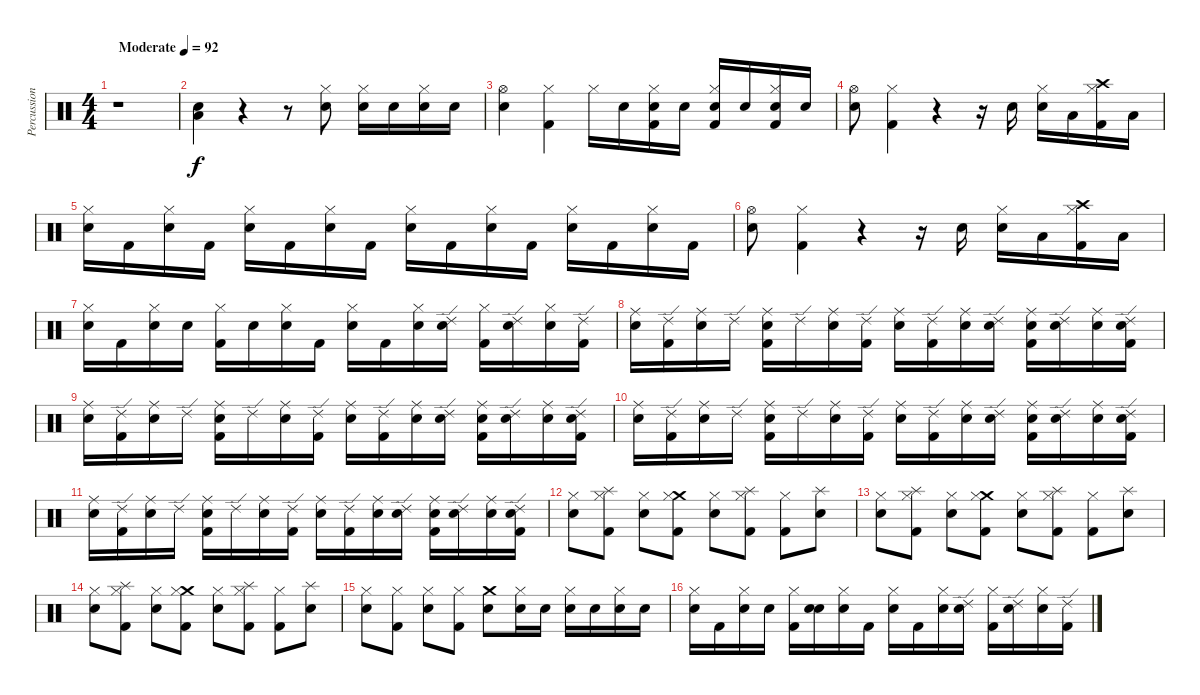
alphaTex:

\track ("Percussion" "Percussion") {instrument percussion}
\staff {score}
\articulation defaults
\ts (4 4)
\tempo (92 "Moderate")
\clef neutral
\ks c
r.1{dy f} |
("Snare (hit) 2" "Low Floor Tom (hit)").4 r.4 r.8 ("Hi-Hat (closed)" "Snare (hit) 2").8 ("Hi-Hat (closed)" "Snare (hit) 2").16 "Snare (hit) 2".16 ("Hi-Hat (closed)" "Snare (hit) 2").16 "Snare (hit) 2".16 |
("Hi-Hat (open)" "Snare (hit) 2").4 ("Hi-Hat (closed)" "Kick (hit) 2").4 "Hi-Hat (closed)".16 "Snare (hit) 2".16 ("Hi-Hat (closed)" "Snare (hit) 2" "Kick (hit) 2").16 "Snare (hit) 2".16 ("Hi-Hat (closed)" "Snare (hit) 2" "Kick (hit) 2").16 "Snare (hit) 2".16 ("Hi-Hat (closed)" "Snare (hit) 2" "Kick (hit) 2").16 "Snare (hit) 2".16 |
("Hi-Hat (open)" "Snare (hit) 2").8 ("Hi-Hat (closed)" "Kick (hit) 2").4 r.4 r.16 "Snare (hit) 2".16 ("Hi-Hat (closed)" "Snare (hit) 2").16 "Low Floor Tom (hit)".16 ("Crash high (hit)" "Hi-Hat (closed)" "Kick (hit) 2").16 "Low Floor Tom (hit)".16 |
("Hi-Hat (closed)" "Snare (hit) 2").16 "Kick (hit) 2".16 ("Hi-Hat (closed)" "Snare (hit) 2").16 "Kick (hit) 2".16 ("Hi-Hat (closed)" "Snare (hit) 2").16 "Kick (hit) 2".16 ("Hi-Hat (closed)" "Snare (hit) 2").16 "Kick (hit) 2".16 ("Hi-Hat (closed)" "Snare (hit) 2").16 "Kick (hit) 2".16 ("Hi-Hat (closed)" "Snare (hit) 2").16 "Kick (hit) 2".16 ("Hi-Hat (closed)" "Snare (hit) 2").16 "Kick (hit) 2".16 ("Hi-Hat (closed)" "Snare (hit) 2").16 "Kick (hit) 2".16 |
("Hi-Hat (open)" "Snare (hit) 2").8 ("Hi-Hat (closed)" "Kick (hit) 2").4 r.4 r.16 "Snare (hit) 2".16 ("Hi-Hat (closed)" "Snare (hit) 2").16 "Low Floor Tom (hit)".16 ("Crash high (hit)" "Hi-Hat (closed)" "Kick (hit) 2").16 "Low Floor Tom (hit)".16 |
("Hi-Hat (closed)" "Snare (hit) 2").16 "Kick (hit) 2".16 ("Hi-Hat (closed)" "Snare (hit) 2").16 "Snare (hit) 2".16 ("Hi-Hat (closed)" "Kick (hit) 2").16 "Snare (hit) 2".16 ("Hi-Hat (closed)" "Snare (hit) 2").16 "Kick (hit) 2".16 ("Hi-Hat (closed)" "Snare (hit) 2").16 "Kick (hit) 2".16 ("Hi-Hat (closed)" "Snare (hit) 2").16 ("Ride (edge) 2" "Snare (hit) 2").16 ("Hi-Hat (closed)" "Kick (hit) 2").16 ("Ride (edge) 2" "Snare (hit) 2").16 ("Hi-Hat (closed)" "Snare (hit) 2").16 ("Ride (edge) 2" "Kick (hit) 2").16 |
("Ride (middle)" "Snare (hit) 2").16 ("Ride (edge) 2" "Kick (hit) 2").16 ("Ride (middle)" "Snare (hit) 2").16 "Ride (edge) 2".16 ("Ride (middle)" "Snare (hit) 2" "Kick (hit) 2").16 "Ride (edge) 2".16 ("Ride (middle)" "Snare (hit) 2").16 ("Ride (edge) 2" "Kick (hit) 2").16 ("Ride (middle)" "Snare (hit) 2").16 ("Ride (edge) 2" "Kick (hit) 2").16 ("Ride (middle)" "Snare (hit) 2").16 ("Ride (edge) 2" "Snare (hit) 2").16 ("Ride (middle)" "Snare (hit) 2" "Kick (hit) 2").16 ("Ride (edge) 2" "Snare (hit) 2").16 ("Ride (middle)" "Snare (hit) 2").16 ("Ride (edge) 2" "Snare (hit) 2" "Kick (hit) 2").16 |
("Ride (middle)" "Snare (hit) 2").16 ("Ride (edge) 2" "Kick (hit) 2").16 ("Ride (middle)" "Snare (hit) 2").16 "Ride (edge) 2".16 ("Ride (middle)" "Snare (hit) 2" "Kick (hit) 2").16 "Ride (edge) 2".16 ("Ride (middle)" "Snare (hit) 2").16 ("Ride (edge) 2" "Kick (hit) 2").16 ("Ride (middle)" "Snare (hit) 2").16 ("Ride (edge) 2" "Kick (hit) 2").16 ("Ride (middle)" "Snare (hit) 2").16 ("Ride (edge) 2" "Snare (hit) 2").16 ("Ride (middle)" "Snare (hit) 2" "Kick (hit) 2").16 ("Ride (edge) 2" "Snare (hit) 2").16 ("Ride (middle)" "Snare (hit) 2").16 ("Ride (edge) 2" "Snare (hit) 2" "Kick (hit) 2").16 |
("Ride (middle)" "Snare (hit) 2").16 ("Ride (edge) 2" "Kick (hit) 2").16 ("Ride (middle)" "Snare (hit) 2").16 "Ride (edge) 2".16 ("Ride (middle)" "Snare (hit) 2" "Kick (hit) 2").16 "Ride (edge) 2".16 ("Ride (middle)" "Snare (hit) 2").16 ("Ride (edge) 2" "Kick (hit) 2").16 ("Ride (middle)" "Snare (hit) 2").16 ("Ride (edge) 2" "Kick (hit) 2").16 ("Ride (middle)" "Snare (hit) 2").16 ("Ride (edge) 2" "Snare (hit) 2").16 ("Ride (middle)" "Snare (hit) 2" "Kick (hit) 2").16 ("Ride (edge) 2" "Snare (hit) 2").16 ("Ride (middle)" "Snare (hit) 2").16 ("Ride (edge) 2" "Snare (hit) 2" "Kick (hit) 2").16 |
("Ride (middle)" "Snare (hit) 2").16 ("Ride (edge) 2" "Kick (hit) 2").16 ("Ride (middle)" "Snare (hit) 2").16 "Ride (edge) 2".16 ("Ride (middle)" "Snare (hit) 2" "Kick (hit) 2").16 "Ride (edge) 2".16 ("Ride (middle)" "Snare (hit) 2").16 ("Ride (edge) 2" "Kick (hit) 2").16 ("Ride (middle)" "Snare (hit) 2").16 ("Ride (edge) 2" "Kick (hit) 2").16 ("Ride (middle)" "Snare (hit) 2").16 ("Ride (edge) 2" "Snare (hit) 2").16 ("Ride (middle)" "Snare (hit) 2" "Kick (hit) 2").16 ("Ride (edge) 2" "Snare (hit) 2").16 ("Ride (middle)" "Snare (hit) 2").16 ("Ride (edge) 2" "Snare (hit) 2" "Kick (hit) 2").16 |
("Hi-Hat (closed)" "Snare (hit) 2").8 ("Splash (hit)" "Hi-Hat (closed)" "Kick (hit) 2").8 ("Hi-Hat (closed)" "Snare (hit) 2").8 ("Crash medium (hit)" "Hi-Hat (closed)" "Kick (hit) 2").8 ("Hi-Hat (closed)" "Snare (hit) 2").8 ("Splash (hit)" "Hi-Hat (closed)" "Kick (hit) 2").8 ("Hi-Hat (closed)" "Kick (hit) 2").8 ("Splash (hit)" "Snare (hit) 2").8 |
("Hi-Hat (closed)" "Snare (hit) 2").8 ("Splash (hit)" "Hi-Hat (closed)" "Kick (hit) 2").8 ("Hi-Hat (closed)" "Snare (hit) 2").8 ("Crash medium (hit)" "Hi-Hat (closed)" "Kick (hit) 2").8 ("Hi-Hat (closed)" "Snare (hit) 2").8 ("Splash (hit)" "Hi-Hat (closed)" "Kick (hit) 2").8 ("Hi-Hat (closed)" "Kick (hit) 2").8 ("Splash (hit)" "Snare (hit) 2").8 |
("Hi-Hat (closed)" "Snare (hit) 2").8 ("Splash (hit)" "Hi-Hat (closed)" "Kick (hit) 2").8 ("Hi-Hat (closed)" "Snare (hit) 2").8 ("Crash medium (hit)" "Hi-Hat (closed)" "Kick (hit) 2").8 ("Hi-Hat (closed)" "Snare (hit) 2").8 ("Splash (hit)" "Hi-Hat (closed)" "Kick (hit) 2").8 ("Hi-Hat (closed)" "Kick (hit) 2").8 ("Splash (hit)" "Snare (hit) 2").8 |
("Hi-Hat (closed)" "Snare (hit) 2").8 ("Hi-Hat (closed)" "Kick (hit) 2").8 ("Hi-Hat (closed)" "Snare (hit) 2").8 ("Hi-Hat (closed)" "Kick (hit) 2").8 ("Crash medium (hit)" "Snare (hit) 2").8 ("Hi-Hat (closed)" "Snare (hit) 2").16 "Snare (hit) 2".16 ("Hi-Hat (closed)" "Snare (hit) 2").16 "Snare (hit) 2".16 ("Hi-Hat (closed)" "Snare (hit) 2").16 "Snare (hit) 2".16 |
("Hi-Hat (closed)" "Snare (hit) 2").16 "Kick (hit) 2".16 ("Hi-Hat (closed)" "Snare (hit) 2").16 "Snare (hit) 2".16 ("Hi-Hat (closed)" "Kick (hit) 2").16 ("Electric Snare (hit)" "Snare (hit) 2").16 ("Hi-Hat (closed)" "Snare (hit) 2").16 "Kick (hit) 2".16 ("Hi-Hat (closed)" "Snare (hit) 2").16 "Kick (hit) 2".16 ("Hi-Hat (closed)" "Snare (hit) 2").16 ("Ride (edge) 2" "Snare (hit) 2").16 ("Hi-Hat (closed)" "Kick (hit) 2").16 ("Ride (edge) 2" "Snare (hit) 2").16 ("Hi-Hat (closed)" "Snare (hit) 2").16 ("Ride (edge) 2" "Kick (hit) 2").16
